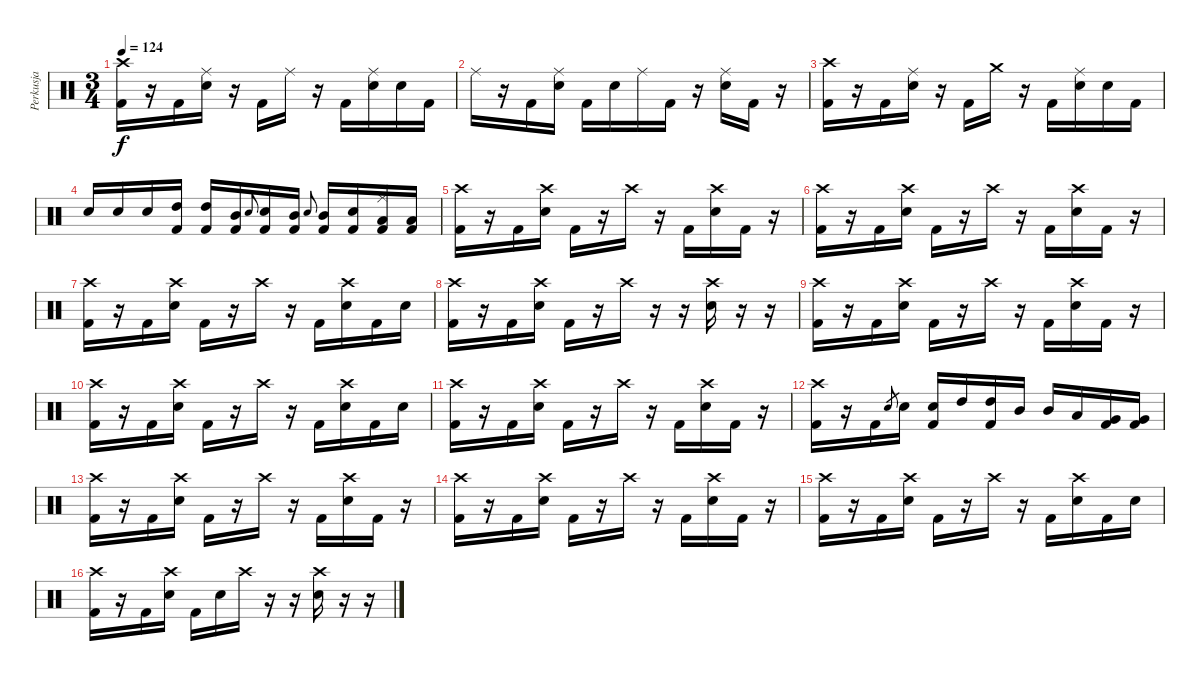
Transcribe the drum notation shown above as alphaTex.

\track ("Perkusja" "Perkusja") {instrument percussion}
\staff {score}
\articulation defaults
\ts (3 4)
\tempo 124
\clef neutral
\ks c
("Crash high (hit)" "Kick (hit) 2").16{dy f} r.16 "Kick (hit) 2".16 ("Ride (middle)" "Electric Snare (hit)").16 r.16 "Kick (hit) 2".16 "Ride (middle)".16 r.16 "Kick (hit) 2".16 ("Ride (middle)" "Electric Snare (hit)").16 "Electric Snare (hit)".16 "Kick (hit) 2".16 |
"Ride (middle)".16 r.16 "Kick (hit) 2".16 ("Ride (middle)" "Electric Snare (hit)").16 "Kick (hit) 2".16 "Electric Snare (hit)".16 "Ride (middle)".16 "Kick (hit) 2".16 r.16 ("Ride (middle)" "Electric Snare (hit)").16 "Kick (hit) 2".16 r.16 |
("Crash high (hit)" "Kick (hit) 2").16 r.16 "Kick (hit) 2".16 ("Ride (middle)" "Electric Snare (hit)").16 r.16 "Kick (hit) 2".16 "Crash medium (hit)".16 r.16 "Kick (hit) 2".16 ("Ride (middle)" "Electric Snare (hit)").16 "Electric Snare (hit)".16 "Kick (hit) 2".16 |
"Electric Snare (hit)".16 "Electric Snare (hit)".16 "Electric Snare (hit)".16 ("High Tom (hit)" "Kick (hit) 2").16 ("High Tom (hit)" "Kick (hit) 2").16 ("Mid Tom (hit)" "Kick (hit) 2").16 "Electric Snare (hit)".8{gr onbeat} ("Electric Snare (hit)" "Kick (hit) 2").16 ("Mid Tom (hit)" "Kick (hit) 2").16 "Electric Snare (hit)".8{gr onbeat} ("Mid Tom (hit)" "Kick (hit) 2").16 ("Electric Snare (hit)" "Kick (hit) 2").16 ("Ride (middle)" "Low Floor Tom (hit)" "Kick (hit) 2").16 ("Low Floor Tom (hit)" "Kick (hit) 2").16 |
("Crash high (hit)" "Kick (hit) 2").16 r.16 "Kick (hit) 2".16 ("Crash high (hit)" "Electric Snare (hit)").16 "Kick (hit) 2".16 r.16 "Crash high (hit)".16 r.16 "Kick (hit) 2".16 ("Crash high (hit)" "Electric Snare (hit)").16 "Kick (hit) 2".16 r.16 |
("Crash high (hit)" "Kick (hit) 2").16 r.16 "Kick (hit) 2".16 ("Crash high (hit)" "Electric Snare (hit)").16 "Kick (hit) 2".16 r.16 "Crash high (hit)".16 r.16 "Kick (hit) 2".16 ("Crash high (hit)" "Electric Snare (hit)").16 "Kick (hit) 2".16 r.16 |
("Crash high (hit)" "Kick (hit) 2").16 r.16 "Kick (hit) 2".16 ("Crash high (hit)" "Electric Snare (hit)").16 "Kick (hit) 2".16 r.16 "Crash high (hit)".16 r.16 "Kick (hit) 2".16 ("Crash high (hit)" "Electric Snare (hit)").16 "Kick (hit) 2".16 "Electric Snare (hit)".16 |
("Crash high (hit)" "Kick (hit) 2").16 r.16 "Kick (hit) 2".16 ("Crash high (hit)" "Electric Snare (hit)").16 "Kick (hit) 2".16 r.16 "Crash high (hit)".16 r.16 r.16 ("Crash high (hit)" "Electric Snare (hit)").16 r.16 r.16 |
("Crash high (hit)" "Kick (hit) 2").16 r.16 "Kick (hit) 2".16 ("Crash high (hit)" "Electric Snare (hit)").16 "Kick (hit) 2".16 r.16 "Crash high (hit)".16 r.16 "Kick (hit) 2".16 ("Crash high (hit)" "Electric Snare (hit)").16 "Kick (hit) 2".16 r.16 |
("Crash high (hit)" "Kick (hit) 2").16 r.16 "Kick (hit) 2".16 ("Crash high (hit)" "Electric Snare (hit)").16 "Kick (hit) 2".16 r.16 "Crash high (hit)".16 r.16 "Kick (hit) 2".16 ("Crash high (hit)" "Electric Snare (hit)").16 "Kick (hit) 2".16 "Electric Snare (hit)".16 |
("Crash high (hit)" "Kick (hit) 2").16 r.16 "Kick (hit) 2".16 ("Crash high (hit)" "Electric Snare (hit)").16 "Kick (hit) 2".16 r.16 "Crash high (hit)".16 r.16 "Kick (hit) 2".16 ("Crash high (hit)" "Electric Snare (hit)").16 "Kick (hit) 2".16 r.16 |
("Crash high (hit)" "Kick (hit) 2").16 r.16 "Kick (hit) 2".16 "Electric Snare (hit)".8{gr} "Electric Snare (hit)".16 ("Electric Snare (hit)" "Kick (hit) 2").16 "High Tom (hit)".16 ("High Tom (hit)" "Kick (hit) 2").16 "Mid Tom (hit)".16 "Mid Tom (hit)".16 "Low Tom (hit)".16 ("Very Low Tom (hit)" "Kick (hit) 2").16 ("Very Low Tom (hit)" "Kick (hit) 2").16 |
("Crash high (hit)" "Kick (hit) 2").16 r.16 "Kick (hit) 2".16 ("Crash high (hit)" "Electric Snare (hit)").16 "Kick (hit) 2".16 r.16 "Crash high (hit)".16 r.16 "Kick (hit) 2".16 ("Crash high (hit)" "Electric Snare (hit)").16 "Kick (hit) 2".16 r.16 |
("Crash high (hit)" "Kick (hit) 2").16 r.16 "Kick (hit) 2".16 ("Crash high (hit)" "Electric Snare (hit)").16 "Kick (hit) 2".16 r.16 "Crash high (hit)".16 r.16 "Kick (hit) 2".16 ("Crash high (hit)" "Electric Snare (hit)").16 "Kick (hit) 2".16 r.16 |
("Crash high (hit)" "Kick (hit) 2").16 r.16 "Kick (hit) 2".16 ("Crash high (hit)" "Electric Snare (hit)").16 "Kick (hit) 2".16 r.16 "Crash high (hit)".16 r.16 "Kick (hit) 2".16 ("Crash high (hit)" "Electric Snare (hit)").16 "Kick (hit) 2".16 "Electric Snare (hit)".16 |
("Crash high (hit)" "Kick (hit) 2").16 r.16 "Kick (hit) 2".16 ("Crash high (hit)" "Electric Snare (hit)").16 "Kick (hit) 2".16 "Electric Snare (hit)".16 "Crash high (hit)".16 r.16 r.16 ("Crash high (hit)" "Electric Snare (hit)").16 r.16 r.16
